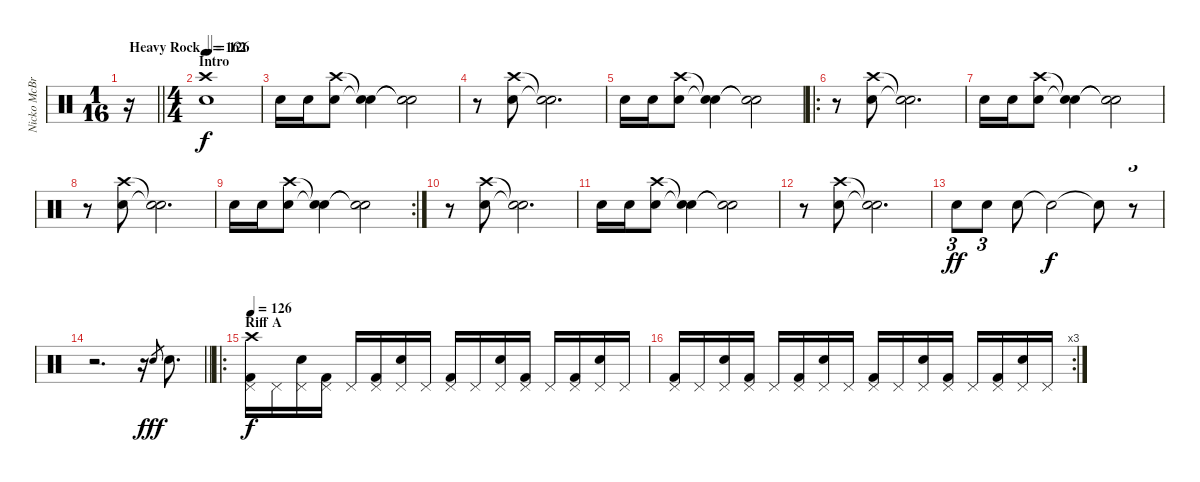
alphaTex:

\track ("Nicko McBrain" "Nicko McBr") {instrument percussion}
\staff {score}
\articulation defaults
\ts (1 16)
\tempo (126 "Heavy Rock")
\clef neutral
\barLineRight lightlight
\ks c
r.16{dy f} |
\ts (4 4)
\section ("" "Intro")
\tempo 162
("Snare (hit) 2" "Crash high (hit)").1 |
"Snare (hit) 2".16 "Snare (hit) 2".16 ("Snare (hit) 2" "Crash high (hit)").8 ("Snare (hit)"{t} "Snare (hit)"{t}).4 ("Snare (hit)"{t} "Snare (hit)"{t}).2 |
r.8 ("Snare (hit) 2" "Crash high (hit)").8 ("Snare (hit)"{t} "Snare (hit)"{t}).2{d} |
"Snare (hit) 2".16 "Snare (hit) 2".16 ("Snare (hit) 2" "Crash high (hit)").8 ("Snare (hit)"{t} "Snare (hit)"{t}).4 ("Snare (hit)"{t} "Snare (hit)"{t}).2 |
\ro
r.8 ("Snare (hit) 2" "Crash high (hit)").8 ("Snare (hit)"{t} "Snare (hit)"{t}).2{d} |
"Snare (hit) 2".16 "Snare (hit) 2".16 ("Snare (hit) 2" "Crash high (hit)").8 ("Snare (hit)"{t} "Snare (hit)"{t}).4 ("Snare (hit)"{t} "Snare (hit)"{t}).2 |
r.8 ("Snare (hit) 2" "Crash high (hit)").8 ("Snare (hit)"{t} "Snare (hit)"{t}).2{d} |
\rc 2 "Snare (hit) 2".16 "Snare (hit) 2".16
("Snare (hit) 2" "Crash high (hit)").8 ("Snare (hit)"{t} "Snare (hit)"{t}).4 ("Snare (hit)"{t} "Snare (hit)"{t}).2 |
r.8 ("Snare (hit) 2" "Crash high (hit)").8 ("Snare (hit)"{t} "Snare (hit)"{t}).2{d} |
"Snare (hit) 2".16 "Snare (hit) 2".16 ("Snare (hit) 2" "Crash high (hit)").8 ("Snare (hit)"{t} "Snare (hit)"{t}).4 ("Snare (hit)"{t} "Snare (hit)"{t}).2 |
r.8 ("Snare (hit) 2" "Crash high (hit)").8 ("Snare (hit)"{t} "Snare (hit)"{t}).2{d} |
"Snare (hit) 2".8{tu (3 2) dy ff} "Snare (hit) 2".8{tu (3 2)} "Snare (hit) 2".8 "Snare (hit)"{t}.2{dy f} "Snare (hit) 2"{t}.8 r.8{tu (3 2)} |
\barLineRight lightlight
r.2{d} r.16 "Snare (hit) 2".8{gr dy fff} "Snare (hit) 2".8{d} |
\ro
\section ("" "Riff A")
\tempo 126
("Kick (hit) 2" "Pedal Hi-Hat (hit)" "Crash high (hit)").16{dy f} "Pedal Hi-Hat (hit)".16 ("Snare (hit) 2" "Pedal Hi-Hat (hit)").16 ("Kick (hit) 2" "Pedal Hi-Hat (hit)").16 "Pedal Hi-Hat (hit)".16 ("Kick (hit) 2" "Pedal Hi-Hat (hit)").16 ("Snare (hit) 2" "Pedal Hi-Hat (hit)").16 "Pedal Hi-Hat (hit)".16 ("Kick (hit) 2" "Pedal Hi-Hat (hit)").16 "Pedal Hi-Hat (hit)".16 ("Snare (hit) 2" "Pedal Hi-Hat (hit)").16 ("Kick (hit) 2" "Pedal Hi-Hat (hit)").16 "Pedal Hi-Hat (hit)".16 ("Kick (hit) 2" "Pedal Hi-Hat (hit)").16 ("Snare (hit) 2" "Pedal Hi-Hat (hit)").16 "Pedal Hi-Hat (hit)".16 |
\rc 3
("Kick (hit) 2" "Pedal Hi-Hat (hit)").16 "Pedal Hi-Hat (hit)".16 ("Snare (hit) 2" "Pedal Hi-Hat (hit)").16 ("Kick (hit) 2" "Pedal Hi-Hat (hit)").16 "Pedal Hi-Hat (hit)".16 ("Kick (hit) 2" "Pedal Hi-Hat (hit)").16 ("Snare (hit) 2" "Pedal Hi-Hat (hit)").16 "Pedal Hi-Hat (hit)".16 ("Kick (hit) 2" "Pedal Hi-Hat (hit)").16 "Pedal Hi-Hat (hit)".16 ("Snare (hit) 2" "Pedal Hi-Hat (hit)").16 ("Kick (hit) 2" "Pedal Hi-Hat (hit)").16 "Pedal Hi-Hat (hit)".16 ("Kick (hit) 2" "Pedal Hi-Hat (hit)").16 ("Snare (hit) 2" "Pedal Hi-Hat (hit)").16 "Pedal Hi-Hat (hit)".16
